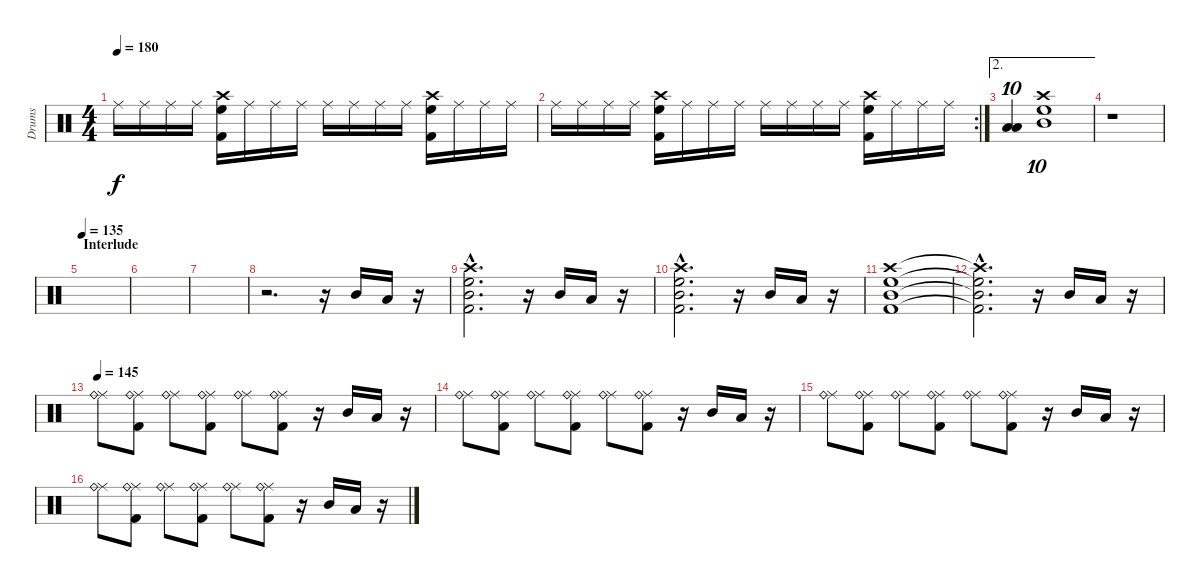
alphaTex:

\track ("Drums" "Drums") {instrument percussion}
\staff {score}
\articulation defaults
\ts (4 4)
\tempo 180
\clef neutral
\ks c "Ride (middle)".16{dy f} "Ride (middle)".16 "Ride (middle)".16 "Ride (middle)".16
("Crash high (hit)" "High Floor Tom (hit)" "Kick (hit) 2").16 "Ride (middle)".16 "Ride (middle)".16 "Ride (middle)".16 "Ride (middle)".16 "Ride (middle)".16 "Ride (middle)".16 "Ride (middle)".16 ("Crash high (hit)" "High Floor Tom (hit)" "Kick (hit) 2").16 "Ride (middle)".16 "Ride (middle)".16 "Ride (middle)".16 |
\rc 2 "Ride (middle)".16 "Ride (middle)".16 "Ride (middle)".16 "Ride (middle)".16
("Crash high (hit)" "High Floor Tom (hit)" "Kick (hit) 2").16 "Ride (middle)".16 "Ride (middle)".16 "Ride (middle)".16 "Ride (middle)".16 "Ride (middle)".16 "Ride (middle)".16 "Ride (middle)".16 ("Crash high (hit)" "High Floor Tom (hit)" "Kick (hit) 2").16 "Ride (middle)".16 "Ride (middle)".16 "Ride (middle)".16 |
\ae 2
("Low Tom (hit)" "Low Floor Tom (hit)").4{tu (10 8)} ("High Floor Tom (hit)" "Mid Tom (hit)" "Crash high (hit)").1{tu (10 8)} |
r.1 |
\section ("" "Interlude")
\tempo 135
|
|
|
r.2{d} r.16 "Mid Tom (hit)".16 "Low Tom (hit)".16 r.16 |
("High Floor Tom (hit)"{hac} "Mid Tom (hit)"{hac} "Crash high (hit)"{hac} "Kick (hit) 2"{hac}).2{d} r.16 "Mid Tom (hit)".16 "Low Tom (hit)".16 r.16 |
("High Floor Tom (hit)"{hac} "Mid Tom (hit)"{hac} "Crash high (hit)"{hac} "Kick (hit) 2"{hac}).2{d} r.16 "Mid Tom (hit)".16 "Low Tom (hit)".16 r.16 |
("High Floor Tom (hit)" "Mid Tom (hit)" "Crash high (hit)" "Kick (hit) 2").1 |
("High Floor Tom (hit)"{hac t} "Mid Tom (hit)"{hac t} "Crash high (hit)"{hac t} "Kick (hit) 2"{hac t}).2{d} r.16 "Mid Tom (hit)".16 "Low Tom (hit)".16 r.16 |
\tempo 145
("Ride (middle)" "Ride (bell)").8 ("Ride (middle)" "Ride (bell)" "Kick (hit) 2").8 ("Ride (middle)" "Ride (bell)").8 ("Ride (middle)" "Ride (bell)" "Kick (hit) 2").8 ("Ride (middle)" "Ride (bell)").8 ("Ride (middle)" "Ride (bell)" "Kick (hit) 2").8 r.16 "Mid Tom (hit)".16 "Low Tom (hit)".16 r.16 |
("Ride (middle)" "Ride (bell)").8 ("Ride (middle)" "Ride (bell)" "Kick (hit) 2").8 ("Ride (middle)" "Ride (bell)").8 ("Ride (middle)" "Ride (bell)" "Kick (hit) 2").8 ("Ride (middle)" "Ride (bell)").8 ("Ride (middle)" "Ride (bell)" "Kick (hit) 2").8 r.16 "Mid Tom (hit)".16 "Low Tom (hit)".16 r.16 |
("Ride (middle)" "Ride (bell)").8 ("Ride (middle)" "Ride (bell)" "Kick (hit) 2").8 ("Ride (middle)" "Ride (bell)").8 ("Ride (middle)" "Ride (bell)" "Kick (hit) 2").8 ("Ride (middle)" "Ride (bell)").8 ("Ride (middle)" "Ride (bell)" "Kick (hit) 2").8 r.16 "Mid Tom (hit)".16 "Low Tom (hit)".16 r.16 |
("Ride (middle)" "Ride (bell)").8 ("Ride (middle)" "Ride (bell)" "Kick (hit) 2").8 ("Ride (middle)" "Ride (bell)").8 ("Ride (middle)" "Ride (bell)" "Kick (hit) 2").8 ("Ride (middle)" "Ride (bell)").8 ("Ride (middle)" "Ride (bell)" "Kick (hit) 2").8 r.16 "Mid Tom (hit)".16 "Low Tom (hit)".16 r.16
